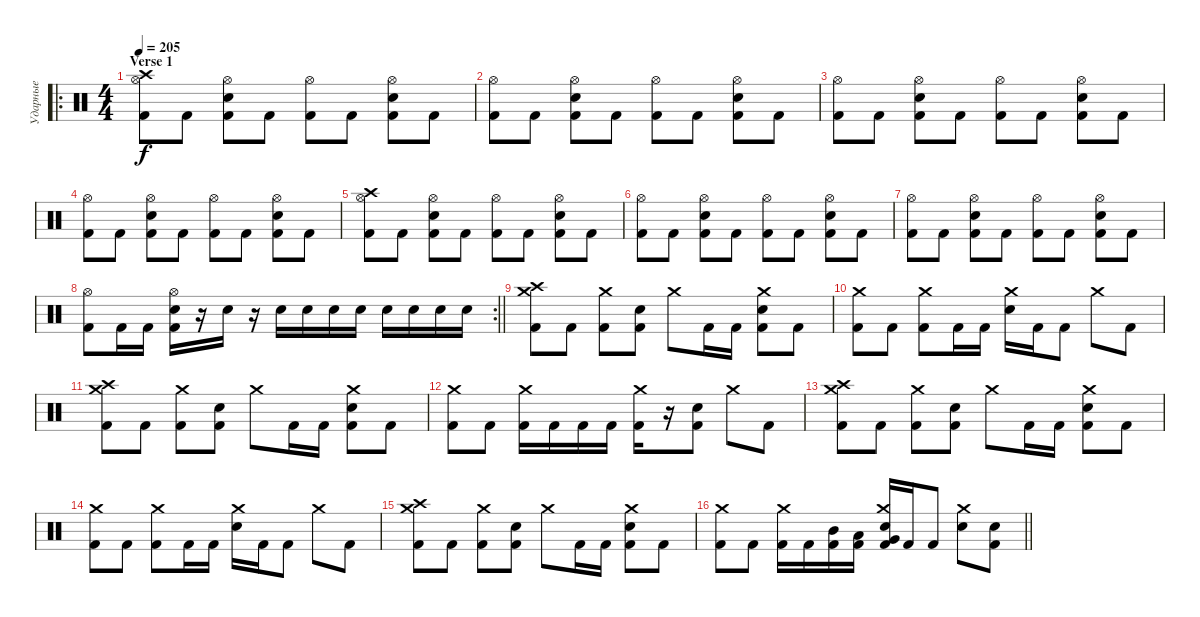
\track ("Ударные" "Ударные") {instrument percussion}
\staff {score}
\articulation defaults
\ro
\ts (4 4)
\section ("" "Verse 1")
\tempo 205
\clef neutral
\ks c
("Hi-Hat (open)" "Crash high (hit)" "Kick (hit) 2").8{dy f} "Kick (hit) 2".8 ("Hi-Hat (open)" "Snare (hit) 2" "Kick (hit) 2").8 "Kick (hit) 2".8 ("Hi-Hat (open)" "Kick (hit) 2").8 "Kick (hit) 2".8 ("Hi-Hat (open)" "Snare (hit) 2" "Kick (hit) 2").8 "Kick (hit) 2".8 |
("Hi-Hat (open)" "Kick (hit) 2").8 "Kick (hit) 2".8 ("Hi-Hat (open)" "Snare (hit) 2" "Kick (hit) 2").8 "Kick (hit) 2".8 ("Hi-Hat (open)" "Kick (hit) 2").8 "Kick (hit) 2".8 ("Hi-Hat (open)" "Snare (hit) 2" "Kick (hit) 2").8 "Kick (hit) 2".8 |
("Hi-Hat (open)" "Kick (hit) 2").8 "Kick (hit) 2".8 ("Hi-Hat (open)" "Snare (hit) 2" "Kick (hit) 2").8 "Kick (hit) 2".8 ("Hi-Hat (open)" "Kick (hit) 2").8 "Kick (hit) 2".8 ("Hi-Hat (open)" "Snare (hit) 2" "Kick (hit) 2").8 "Kick (hit) 2".8 |
("Hi-Hat (open)" "Kick (hit) 2").8 "Kick (hit) 2".8 ("Hi-Hat (open)" "Snare (hit) 2" "Kick (hit) 2").8 "Kick (hit) 2".8 ("Hi-Hat (open)" "Kick (hit) 2").8 "Kick (hit) 2".8 ("Hi-Hat (open)" "Snare (hit) 2" "Kick (hit) 2").8 "Kick (hit) 2".8 |
("Hi-Hat (open)" "Crash high (hit)" "Kick (hit) 2").8 "Kick (hit) 2".8 ("Hi-Hat (open)" "Snare (hit) 2" "Kick (hit) 2").8 "Kick (hit) 2".8 ("Hi-Hat (open)" "Kick (hit) 2").8 "Kick (hit) 2".8 ("Hi-Hat (open)" "Snare (hit) 2" "Kick (hit) 2").8 "Kick (hit) 2".8 |
("Hi-Hat (open)" "Kick (hit) 2").8 "Kick (hit) 2".8 ("Hi-Hat (open)" "Snare (hit) 2" "Kick (hit) 2").8 "Kick (hit) 2".8 ("Hi-Hat (open)" "Kick (hit) 2").8 "Kick (hit) 2".8 ("Hi-Hat (open)" "Snare (hit) 2" "Kick (hit) 2").8 "Kick (hit) 2".8 |
("Hi-Hat (open)" "Kick (hit) 2").8 "Kick (hit) 2".8 ("Hi-Hat (open)" "Snare (hit) 2" "Kick (hit) 2").8 "Kick (hit) 2".8 ("Hi-Hat (open)" "Kick (hit) 2").8 "Kick (hit) 2".8 ("Hi-Hat (open)" "Snare (hit) 2" "Kick (hit) 2").8 "Kick (hit) 2".8 |
\rc 2
\barLineRight lightlight
("Hi-Hat (open)" "Kick (hit) 2").8 "Kick (hit) 2".16 "Kick (hit) 2".16 ("Hi-Hat (open)" "Snare (hit) 2" "Kick (hit) 2").16 r.16 "Snare (hit) 2".16 r.16 "Snare (hit) 2".16 "Snare (hit) 2".16 "Snare (hit) 2".16 "Snare (hit) 2".16 "Snare (hit) 2".16 "Snare (hit) 2".16 "Snare (hit) 2".16 "Snare (hit) 2".16 |
("Crash medium (hit)" "Crash high (hit)" "Kick (hit) 2").8 "Kick (hit) 2".8 ("Crash medium (hit)" "Kick (hit) 2").8 ("Snare (hit) 2" "Kick (hit) 2").8 "Crash medium (hit)".8 "Kick (hit) 2".16 "Kick (hit) 2".16 ("Crash medium (hit)" "Snare (hit) 2" "Kick (hit) 2").8 "Kick (hit) 2".8 |
("Crash medium (hit)" "Kick (hit) 2").8 "Kick (hit) 2".8 ("Crash medium (hit)" "Kick (hit) 2").8 "Kick (hit) 2".16 "Kick (hit) 2".16 ("Crash medium (hit)" "Snare (hit) 2").16 "Kick (hit) 2".16 "Kick (hit) 2".8 "Crash medium (hit)".8 "Kick (hit) 2".8 |
("Crash medium (hit)" "Crash high (hit)" "Kick (hit) 2").8 "Kick (hit) 2".8 ("Crash medium (hit)" "Kick (hit) 2").8 ("Snare (hit) 2" "Kick (hit) 2").8 "Crash medium (hit)".8 "Kick (hit) 2".16 "Kick (hit) 2".16 ("Crash medium (hit)" "Snare (hit) 2" "Kick (hit) 2").8 "Kick (hit) 2".8 |
("Crash medium (hit)" "Kick (hit) 2").8 "Kick (hit) 2".8 ("Crash medium (hit)" "Kick (hit) 2").16 "Kick (hit) 2".16 "Kick (hit) 2".16 "Kick (hit) 2".16 ("Crash medium (hit)" "Kick (hit) 2").16 r.16 ("Snare (hit) 2" "Kick (hit) 2").8 "Crash medium (hit)".8 "Kick (hit) 2".8 |
("Crash medium (hit)" "Crash high (hit)" "Kick (hit) 2").8 "Kick (hit) 2".8 ("Crash medium (hit)" "Kick (hit) 2").8 ("Snare (hit) 2" "Kick (hit) 2").8 "Crash medium (hit)".8 "Kick (hit) 2".16 "Kick (hit) 2".16 ("Crash medium (hit)" "Snare (hit) 2" "Kick (hit) 2").8 "Kick (hit) 2".8 |
("Crash medium (hit)" "Kick (hit) 2").8 "Kick (hit) 2".8 ("Crash medium (hit)" "Kick (hit) 2").8 "Kick (hit) 2".16 "Kick (hit) 2".16 ("Crash medium (hit)" "Snare (hit) 2").16 "Kick (hit) 2".16 "Kick (hit) 2".8 "Crash medium (hit)".8 "Kick (hit) 2".8 |
("Crash medium (hit)" "Crash high (hit)" "Kick (hit) 2").8 "Kick (hit) 2".8 ("Crash medium (hit)" "Kick (hit) 2").8 ("Snare (hit) 2" "Kick (hit) 2").8 "Crash medium (hit)".8 "Kick (hit) 2".16 "Kick (hit) 2".16 ("Crash medium (hit)" "Snare (hit) 2" "Kick (hit) 2").8 "Kick (hit) 2".8 |
\barLineRight lightlight
("Crash medium (hit)" "Kick (hit) 2").8 "Kick (hit) 2".8 ("Crash medium (hit)" "Kick (hit) 2").16 "Kick (hit) 2".16 ("Mid Tom (hit)" "Kick (hit) 2").16 ("Low Tom (hit)" "Kick (hit) 2").16 ("Crash medium (hit)" "Snare (hit) 2" "Very Low Tom (hit)" "Kick (hit) 2").16 "Kick (hit) 2".16 "Kick (hit) 2".8 ("Crash medium (hit)" "Snare (hit) 2").8 ("Snare (hit) 2" "Kick (hit) 2").8
